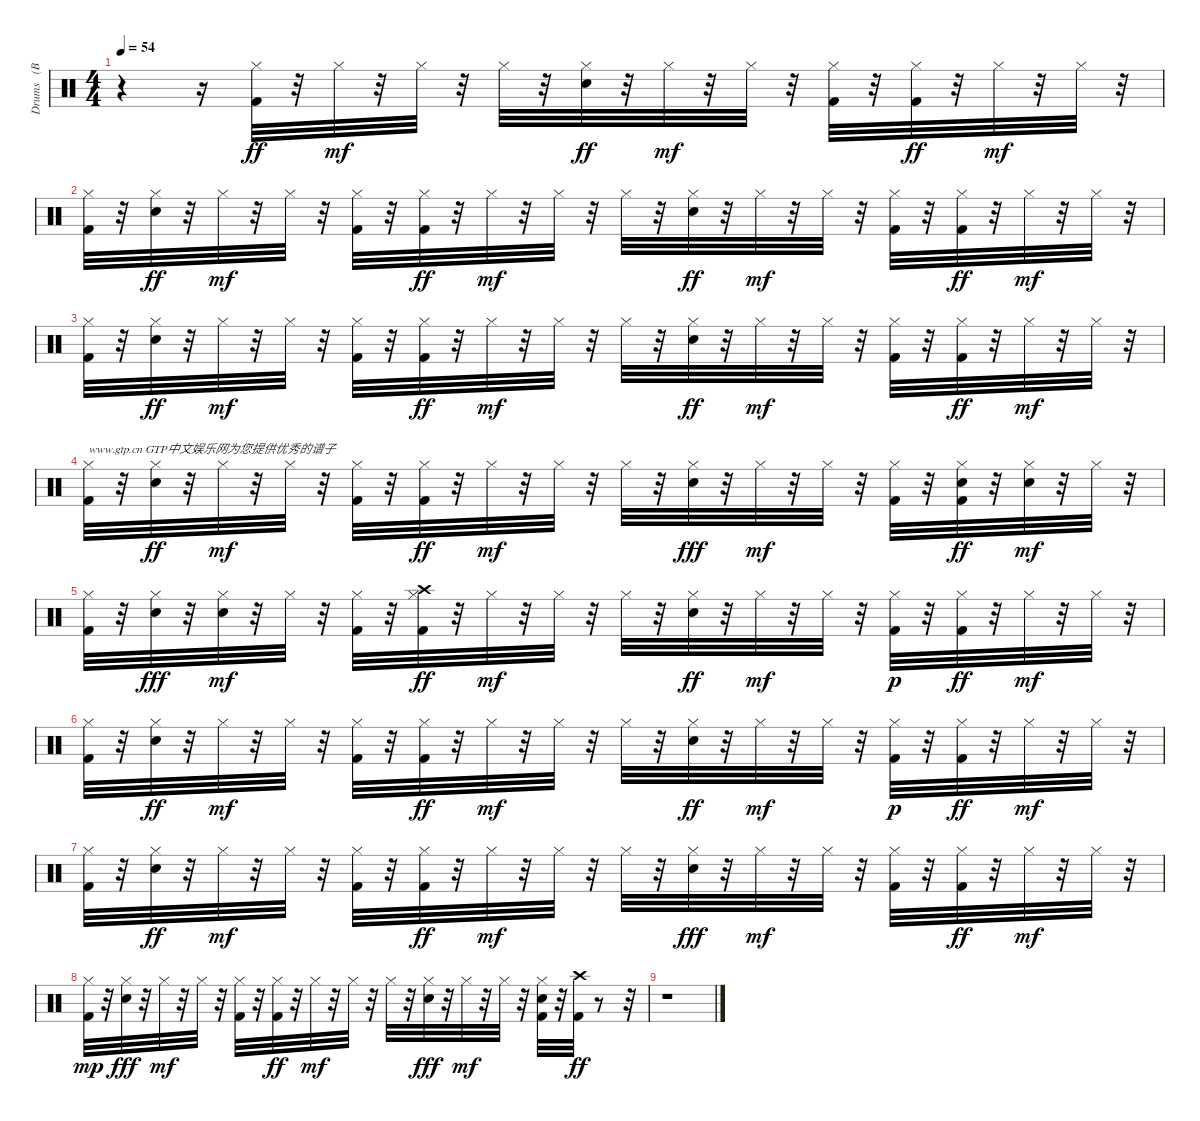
\track ("Drums   (BB)" "Drums   (B") {instrument percussion}
\staff {score}
\articulation defaults
\ts (4 4)
\tempo 54
\clef neutral
\ks c
r.4{dy ff} r.16 ("Kick (hit) 2" "Hi-Hat (closed)").32 r.32 "Hi-Hat (closed)".32{dy mf} r.32 "Hi-Hat (closed)".32 r.32 "Hi-Hat (closed)".32 r.32 ("Electric Snare (hit)" "Hi-Hat (closed)").32{dy ff} r.32 "Hi-Hat (closed)".32{dy mf} r.32 "Hi-Hat (closed)".32 r.32 ("Kick (hit) 2" "Hi-Hat (closed)").32 r.32 ("Kick (hit) 2" "Hi-Hat (closed)").32{dy ff} r.32 "Hi-Hat (closed)".32{dy mf} r.32 "Hi-Hat (closed)".32 r.32 |
("Kick (hit) 2" "Hi-Hat (closed)").32 r.32 ("Electric Snare (hit)" "Hi-Hat (closed)").32{dy ff} r.32 "Hi-Hat (closed)".32{dy mf} r.32 "Hi-Hat (closed)".32 r.32 ("Kick (hit) 2" "Hi-Hat (closed)").32 r.32 ("Kick (hit) 2" "Hi-Hat (closed)").32{dy ff} r.32 "Hi-Hat (closed)".32{dy mf} r.32 "Hi-Hat (closed)".32 r.32 "Hi-Hat (closed)".32 r.32 ("Electric Snare (hit)" "Hi-Hat (closed)").32{dy ff} r.32 "Hi-Hat (closed)".32{dy mf} r.32 "Hi-Hat (closed)".32 r.32 ("Kick (hit) 2" "Hi-Hat (closed)").32 r.32 ("Kick (hit) 2" "Hi-Hat (closed)").32{dy ff} r.32 "Hi-Hat (closed)".32{dy mf} r.32 "Hi-Hat (closed)".32 r.32 |
("Kick (hit) 2" "Hi-Hat (closed)").32 r.32 ("Electric Snare (hit)" "Hi-Hat (closed)").32{dy ff} r.32 "Hi-Hat (closed)".32{dy mf} r.32 "Hi-Hat (closed)".32 r.32 ("Kick (hit) 2" "Hi-Hat (closed)").32 r.32 ("Kick (hit) 2" "Hi-Hat (closed)").32{dy ff} r.32 "Hi-Hat (closed)".32{dy mf} r.32 "Hi-Hat (closed)".32 r.32 "Hi-Hat (closed)".32 r.32 ("Electric Snare (hit)" "Hi-Hat (closed)").32{dy ff} r.32 "Hi-Hat (closed)".32{dy mf} r.32 "Hi-Hat (closed)".32 r.32 ("Kick (hit) 2" "Hi-Hat (closed)").32 r.32 ("Kick (hit) 2" "Hi-Hat (closed)").32{dy ff} r.32 "Hi-Hat (closed)".32{dy mf} r.32 "Hi-Hat (closed)".32 r.32 |
("Kick (hit) 2" "Hi-Hat (closed)").32{txt "www.gtp.cn GTP中文娱乐网为您提供优秀的谱子"} r.32 ("Electric Snare (hit)" "Hi-Hat (closed)").32{dy ff} r.32 "Hi-Hat (closed)".32{dy mf} r.32 "Hi-Hat (closed)".32 r.32 ("Kick (hit) 2" "Hi-Hat (closed)").32 r.32 ("Kick (hit) 2" "Hi-Hat (closed)").32{dy ff} r.32 "Hi-Hat (closed)".32{dy mf} r.32 "Hi-Hat (closed)".32 r.32 "Hi-Hat (closed)".32 r.32 ("Electric Snare (hit)" "Hi-Hat (closed)").32{dy fff} r.32 "Hi-Hat (closed)".32{dy mf} r.32 "Hi-Hat (closed)".32 r.32 ("Kick (hit) 2" "Hi-Hat (closed)").32 r.32 ("Kick (hit) 2" "Electric Snare (hit)" "Hi-Hat (closed)").32{dy ff} r.32 ("Hi-Hat (closed)" "Electric Snare (hit)").32{dy mf} r.32 "Hi-Hat (closed)".32 r.32 |
("Kick (hit) 2" "Hi-Hat (closed)").32 r.32 ("Electric Snare (hit)" "Hi-Hat (closed)").32{dy fff} r.32 ("Hi-Hat (closed)" "Electric Snare (hit)").32{dy mf} r.32 "Hi-Hat (closed)".32 r.32 ("Kick (hit) 2" "Hi-Hat (closed)").32 r.32 ("Crash high (hit)" "Hi-Hat (closed)" "Kick (hit) 2").32{dy ff} r.32 "Hi-Hat (closed)".32{dy mf} r.32 "Hi-Hat (closed)".32 r.32 "Hi-Hat (closed)".32 r.32 ("Hi-Hat (closed)" "Electric Snare (hit)").32{dy ff} r.32 "Hi-Hat (closed)".32{dy mf} r.32 "Hi-Hat (closed)".32 r.32 ("Hi-Hat (closed)" "Kick (hit) 2").32{dy p} r.32 ("Hi-Hat (closed)" "Kick (hit) 2").32{dy ff} r.32 "Hi-Hat (closed)".32{dy mf} r.32 "Hi-Hat (closed)".32 r.32 |
("Kick (hit) 2" "Hi-Hat (closed)").32 r.32 ("Hi-Hat (closed)" "Electric Snare (hit)").32{dy ff} r.32 "Hi-Hat (closed)".32{dy mf} r.32 "Hi-Hat (closed)".32 r.32 ("Kick (hit) 2" "Hi-Hat (closed)").32 r.32 ("Hi-Hat (closed)" "Kick (hit) 2").32{dy ff} r.32 "Hi-Hat (closed)".32{dy mf} r.32 "Hi-Hat (closed)".32 r.32 "Hi-Hat (closed)".32 r.32 ("Hi-Hat (closed)" "Electric Snare (hit)").32{dy ff} r.32 "Hi-Hat (closed)".32{dy mf} r.32 "Hi-Hat (closed)".32 r.32 ("Hi-Hat (closed)" "Kick (hit) 2").32{dy p} r.32 ("Kick (hit) 2" "Hi-Hat (closed)").32{dy ff} r.32 "Hi-Hat (closed)".32{dy mf} r.32 "Hi-Hat (closed)".32 r.32 |
("Kick (hit) 2" "Hi-Hat (closed)").32 r.32 ("Electric Snare (hit)" "Hi-Hat (closed)").32{dy ff} r.32 "Hi-Hat (closed)".32{dy mf} r.32 "Hi-Hat (closed)".32 r.32 ("Kick (hit) 2" "Hi-Hat (closed)").32 r.32 ("Hi-Hat (closed)" "Kick (hit) 2").32{dy ff} r.32 "Hi-Hat (closed)".32{dy mf} r.32 "Hi-Hat (closed)".32 r.32 "Hi-Hat (closed)".32 r.32 ("Hi-Hat (closed)" "Electric Snare (hit)").32{dy fff} r.32 "Hi-Hat (closed)".32{dy mf} r.32 "Hi-Hat (closed)".32 r.32 ("Kick (hit) 2" "Hi-Hat (closed)").32 r.32 ("Kick (hit) 2" "Hi-Hat (closed)").32{dy ff} r.32 "Hi-Hat (closed)".32{dy mf} r.32 "Hi-Hat (closed)".32 r.32 |
("Hi-Hat (closed)" "Kick (hit) 2").32{dy mp} r.32 ("Hi-Hat (closed)" "Electric Snare (hit)").32{dy fff} r.32 "Hi-Hat (closed)".32{dy mf} r.32 "Hi-Hat (closed)".32 r.32 ("Kick (hit) 2" "Hi-Hat (closed)").32 r.32 ("Kick (hit) 2" "Hi-Hat (closed)").32{dy ff} r.32 "Hi-Hat (closed)".32{dy mf} r.32 "Hi-Hat (closed)".32 r.32 "Hi-Hat (closed)".32 r.32 ("Hi-Hat (closed)" "Electric Snare (hit)").32{dy fff} r.32 "Hi-Hat (closed)".32{dy mf} r.32 "Hi-Hat (closed)".32 r.32 ("Kick (hit) 2" "Electric Snare (hit)" "Hi-Hat (closed)").32 r.32 ("Kick (hit) 2" "Crash high (hit)").32{dy ff} r.8 r.32 |
r.1
